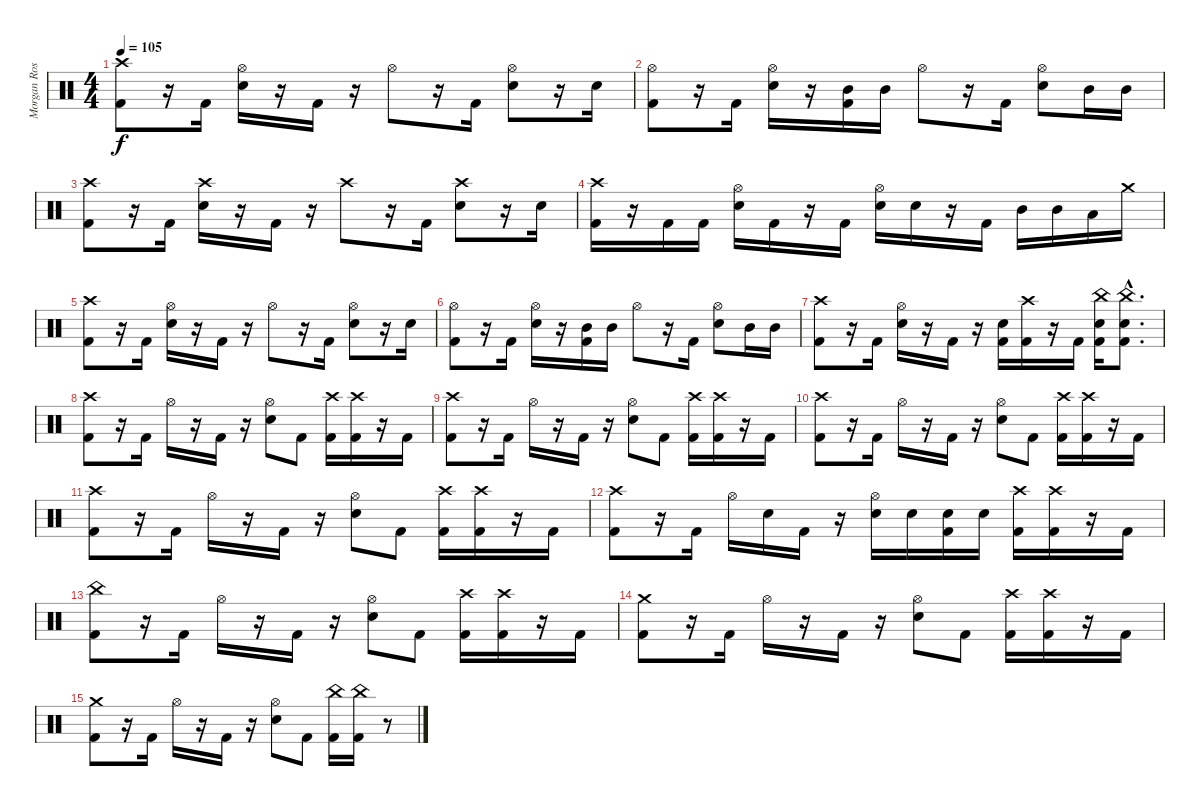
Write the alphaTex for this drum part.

\track ("Morgan Rose - Drums" "Morgan Ros") {instrument percussion}
\staff {score}
\articulation defaults
\ts (4 4)
\tempo 105
\clef neutral
\ks c
("Crash high (hit)" "Kick (hit) 2").8{dy f} r.16 "Kick (hit) 2".16 ("Hi-Hat (open)" "Electric Snare (hit)").16 r.16 "Kick (hit) 2".16 r.16 "Hi-Hat (open)".8 r.16 "Kick (hit) 2".16 ("Hi-Hat (open)" "Electric Snare (hit)").8 r.16 "Electric Snare (hit)".16 |
("Hi-Hat (open)" "Kick (hit) 2").8 r.16 "Kick (hit) 2".16 ("Hi-Hat (open)" "Electric Snare (hit)").16 r.16 ("Mid Tom (hit)" "Kick (hit) 2").16 "Mid Tom (hit)".16 "Hi-Hat (open)".8 r.16 "Kick (hit) 2".16 ("Hi-Hat (open)" "Electric Snare (hit)").8 "Mid Tom (hit)".16 "Mid Tom (hit)".16 |
("Crash high (hit)" "Kick (hit) 2").8 r.16 "Kick (hit) 2".16 ("Crash high (hit)" "Electric Snare (hit)").16 r.16 "Kick (hit) 2".16 r.16 "Crash high (hit)".8 r.16 "Kick (hit) 2".16 ("Crash high (hit)" "Electric Snare (hit)").8 r.16 "Electric Snare (hit)".16 |
("Crash high (hit)" "Kick (hit) 2").16 r.16 "Kick (hit) 2".16 "Kick (hit) 2".16 ("Hi-Hat (open)" "Electric Snare (hit)").16 "Kick (hit) 2".16 r.16 "Kick (hit) 2".16 ("Hi-Hat (open)" "Electric Snare (hit)").16 "Electric Snare (hit)".16 r.16 "Kick (hit) 2".16 "Mid Tom (hit)".16 "Mid Tom (hit)".16 "Low Tom (hit)".16 "Crash medium (hit)".16 |
("Crash high (hit)" "Kick (hit) 2").8 r.16 "Kick (hit) 2".16 ("Hi-Hat (open)" "Electric Snare (hit)").16 r.16 "Kick (hit) 2".16 r.16 "Hi-Hat (open)".8 r.16 "Kick (hit) 2".16 ("Hi-Hat (open)" "Electric Snare (hit)").8 r.16 "Electric Snare (hit)".16 |
("Hi-Hat (open)" "Kick (hit) 2").8 r.16 "Kick (hit) 2".16 ("Hi-Hat (open)" "Electric Snare (hit)").16 r.16 ("Mid Tom (hit)" "Kick (hit) 2").16 "Mid Tom (hit)".16 "Hi-Hat (open)".8 r.16 "Kick (hit) 2".16 ("Hi-Hat (open)" "Electric Snare (hit)").8 "Mid Tom (hit)".16 "Mid Tom (hit)".16 |
("Crash high (hit)" "Kick (hit) 2").8 r.16 "Kick (hit) 2".16 ("Hi-Hat (open)" "Electric Snare (hit)").16 r.16 "Kick (hit) 2".16 r.16 ("Electric Snare (hit)" "Kick (hit) 2").16 ("Crash high (hit)" "Kick (hit) 2").16 r.16 "Kick (hit) 2".16 ("China (hit)" "Electric Snare (hit)" "Kick (hit) 2").16 ("China (hit)"{hac} "Electric Snare (hit)"{hac} "Kick (hit) 2"{hac}).8{d} |
("Crash high (hit)" "Kick (hit) 2").8 r.16 "Kick (hit) 2".16 "Hi-Hat (open)".16 r.16 "Kick (hit) 2".16 r.16 ("Hi-Hat (open)" "Electric Snare (hit)").8 "Kick (hit) 2".8 ("Crash high (hit)" "Kick (hit) 2").16 ("Crash high (hit)" "Kick (hit) 2").16 r.16 "Kick (hit) 2".16 |
("Crash high (hit)" "Kick (hit) 2").8 r.16 "Kick (hit) 2".16 "Hi-Hat (open)".16 r.16 "Kick (hit) 2".16 r.16 ("Hi-Hat (open)" "Electric Snare (hit)").8 "Kick (hit) 2".8 ("Crash high (hit)" "Kick (hit) 2").16 ("Crash high (hit)" "Kick (hit) 2").16 r.16 "Kick (hit) 2".16 |
("Crash high (hit)" "Kick (hit) 2").8 r.16 "Kick (hit) 2".16 "Hi-Hat (open)".16 r.16 "Kick (hit) 2".16 r.16 ("Hi-Hat (open)" "Electric Snare (hit)").8 "Kick (hit) 2".8 ("Crash high (hit)" "Kick (hit) 2").16 ("Crash high (hit)" "Kick (hit) 2").16 r.16 "Kick (hit) 2".16 |
("Crash high (hit)" "Kick (hit) 2").8 r.16 "Kick (hit) 2".16 "Hi-Hat (open)".16 r.16 "Kick (hit) 2".16 r.16 ("Hi-Hat (open)" "Electric Snare (hit)").8 "Kick (hit) 2".8 ("Crash high (hit)" "Kick (hit) 2").16 ("Crash high (hit)" "Kick (hit) 2").16 r.16 "Kick (hit) 2".16 |
("Crash high (hit)" "Kick (hit) 2").8 r.16 "Kick (hit) 2".16 "Hi-Hat (open)".16 "Electric Snare (hit)".16 "Kick (hit) 2".16 r.16 ("Hi-Hat (open)" "Electric Snare (hit)").16 "Electric Snare (hit)".16 ("Electric Snare (hit)" "Kick (hit) 2").16 "Electric Snare (hit)".16 ("Crash high (hit)" "Kick (hit) 2").16 ("Crash high (hit)" "Kick (hit) 2").16 r.16 "Kick (hit) 2".16 |
("China (hit)" "Kick (hit) 2").8 r.16 "Kick (hit) 2".16 "Hi-Hat (open)".16 r.16 "Kick (hit) 2".16 r.16 ("Hi-Hat (open)" "Electric Snare (hit)").8 "Kick (hit) 2".8 ("Crash high (hit)" "Kick (hit) 2").16 ("Crash high (hit)" "Kick (hit) 2").16 r.16 "Kick (hit) 2".16 |
("Crash medium (hit)" "Kick (hit) 2").8 r.16 "Kick (hit) 2".16 "Hi-Hat (open)".16 r.16 "Kick (hit) 2".16 r.16 ("Hi-Hat (open)" "Electric Snare (hit)").8 "Kick (hit) 2".8 ("Crash high (hit)" "Kick (hit) 2").16 ("Crash high (hit)" "Kick (hit) 2").16 r.16 "Kick (hit) 2".16 |
("Crash medium (hit)" "Kick (hit) 2").8 r.16 "Kick (hit) 2".16 "Hi-Hat (open)".16 r.16 "Kick (hit) 2".16 r.16 ("Hi-Hat (open)" "Electric Snare (hit)").8 "Kick (hit) 2".8 ("China (hit)" "Kick (hit) 2").16 ("China (hit)" "Kick (hit) 2").16 r.8
